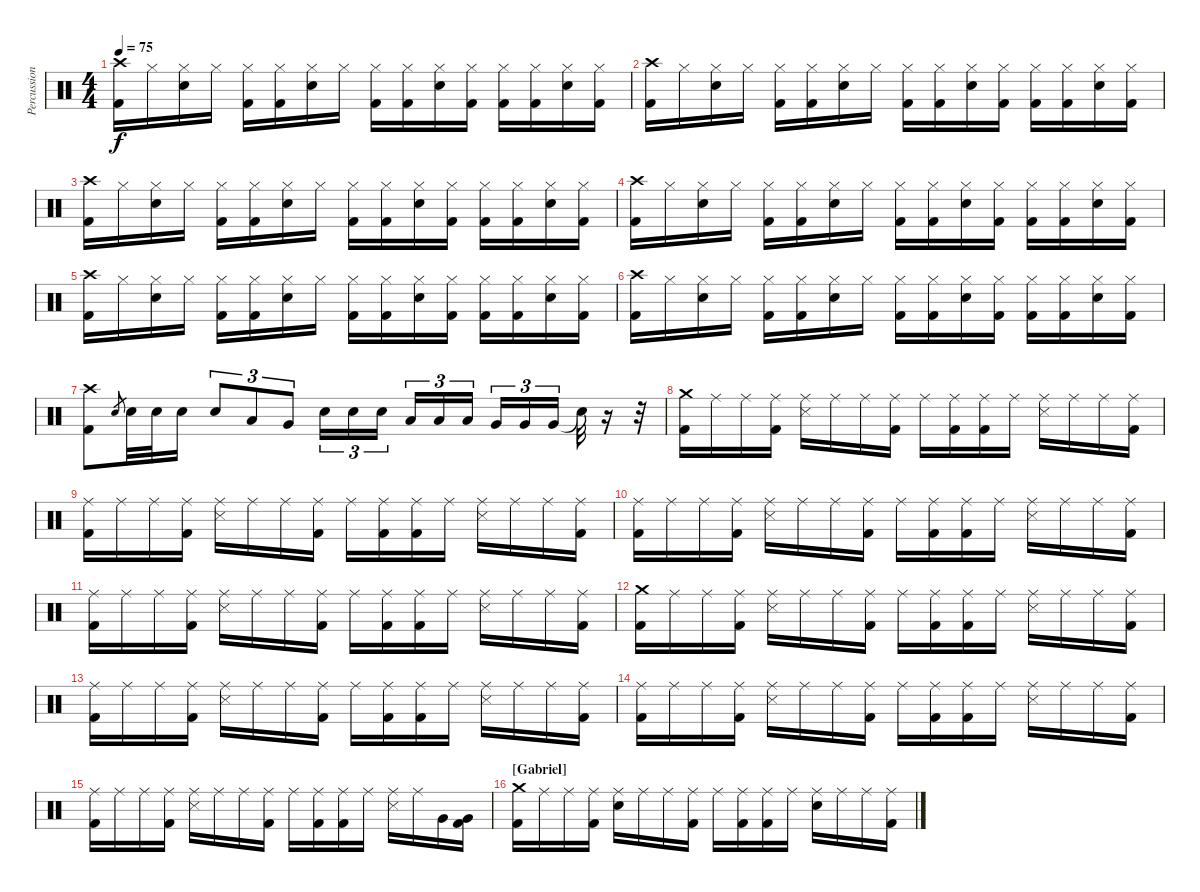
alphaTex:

\track ("Percussions" "Percussion") {instrument percussion}
\staff {score}
\articulation defaults
\ts (4 4)
\tempo 75
\clef neutral
\ks c
("Crash high (hit)" "Kick (hit) 2").16{dy f} "Hi-Hat (closed)".16 ("Hi-Hat (closed)" "Electric Snare (hit)").16 "Hi-Hat (closed)".16 ("Hi-Hat (closed)" "Kick (hit) 2").16 ("Hi-Hat (closed)" "Kick (hit) 2").16 ("Hi-Hat (closed)" "Electric Snare (hit)").16 "Hi-Hat (closed)".16 ("Hi-Hat (closed)" "Kick (hit) 2").16 ("Hi-Hat (closed)" "Kick (hit) 2").16 ("Hi-Hat (closed)" "Electric Snare (hit)").16 ("Hi-Hat (closed)" "Kick (hit) 2").16 ("Hi-Hat (closed)" "Kick (hit) 2").16 ("Hi-Hat (closed)" "Kick (hit) 2").16 ("Hi-Hat (closed)" "Electric Snare (hit)").16 ("Hi-Hat (closed)" "Kick (hit) 2").16 |
("Crash high (hit)" "Kick (hit) 2").16 "Hi-Hat (closed)".16 ("Hi-Hat (closed)" "Electric Snare (hit)").16 "Hi-Hat (closed)".16 ("Hi-Hat (closed)" "Kick (hit) 2").16 ("Hi-Hat (closed)" "Kick (hit) 2").16 ("Hi-Hat (closed)" "Electric Snare (hit)").16 "Hi-Hat (closed)".16 ("Hi-Hat (closed)" "Kick (hit) 2").16 ("Hi-Hat (closed)" "Kick (hit) 2").16 ("Hi-Hat (closed)" "Electric Snare (hit)").16 ("Hi-Hat (closed)" "Kick (hit) 2").16 ("Hi-Hat (closed)" "Kick (hit) 2").16 ("Hi-Hat (closed)" "Kick (hit) 2").16 ("Hi-Hat (closed)" "Electric Snare (hit)").16 ("Hi-Hat (closed)" "Kick (hit) 2").16 |
("Crash high (hit)" "Kick (hit) 2").16 "Hi-Hat (closed)".16 ("Hi-Hat (closed)" "Electric Snare (hit)").16 "Hi-Hat (closed)".16 ("Hi-Hat (closed)" "Kick (hit) 2").16 ("Hi-Hat (closed)" "Kick (hit) 2").16 ("Hi-Hat (closed)" "Electric Snare (hit)").16 "Hi-Hat (closed)".16 ("Hi-Hat (closed)" "Kick (hit) 2").16 ("Hi-Hat (closed)" "Kick (hit) 2").16 ("Hi-Hat (closed)" "Electric Snare (hit)").16 ("Hi-Hat (closed)" "Kick (hit) 2").16 ("Hi-Hat (closed)" "Kick (hit) 2").16 ("Hi-Hat (closed)" "Kick (hit) 2").16 ("Hi-Hat (closed)" "Electric Snare (hit)").16 ("Hi-Hat (closed)" "Kick (hit) 2").16 |
("Crash high (hit)" "Kick (hit) 2").16 "Hi-Hat (closed)".16 ("Hi-Hat (closed)" "Electric Snare (hit)").16 "Hi-Hat (closed)".16 ("Hi-Hat (closed)" "Kick (hit) 2").16 ("Hi-Hat (closed)" "Kick (hit) 2").16 ("Hi-Hat (closed)" "Electric Snare (hit)").16 "Hi-Hat (closed)".16 ("Hi-Hat (closed)" "Kick (hit) 2").16 ("Hi-Hat (closed)" "Kick (hit) 2").16 ("Hi-Hat (closed)" "Electric Snare (hit)").16 ("Hi-Hat (closed)" "Kick (hit) 2").16 ("Hi-Hat (closed)" "Kick (hit) 2").16 ("Hi-Hat (closed)" "Kick (hit) 2").16 ("Hi-Hat (closed)" "Electric Snare (hit)").16 ("Hi-Hat (closed)" "Kick (hit) 2").16 |
("Crash high (hit)" "Kick (hit) 2").16 "Hi-Hat (closed)".16 ("Hi-Hat (closed)" "Electric Snare (hit)").16 "Hi-Hat (closed)".16 ("Hi-Hat (closed)" "Kick (hit) 2").16 ("Hi-Hat (closed)" "Kick (hit) 2").16 ("Hi-Hat (closed)" "Electric Snare (hit)").16 "Hi-Hat (closed)".16 ("Hi-Hat (closed)" "Kick (hit) 2").16 ("Hi-Hat (closed)" "Kick (hit) 2").16 ("Hi-Hat (closed)" "Electric Snare (hit)").16 ("Hi-Hat (closed)" "Kick (hit) 2").16 ("Hi-Hat (closed)" "Kick (hit) 2").16 ("Hi-Hat (closed)" "Kick (hit) 2").16 ("Hi-Hat (closed)" "Electric Snare (hit)").16 ("Hi-Hat (closed)" "Kick (hit) 2").16 |
("Crash high (hit)" "Kick (hit) 2").16 "Hi-Hat (closed)".16 ("Hi-Hat (closed)" "Electric Snare (hit)").16 "Hi-Hat (closed)".16 ("Hi-Hat (closed)" "Kick (hit) 2").16 ("Hi-Hat (closed)" "Kick (hit) 2").16 ("Hi-Hat (closed)" "Electric Snare (hit)").16 "Hi-Hat (closed)".16 ("Hi-Hat (closed)" "Kick (hit) 2").16 ("Hi-Hat (closed)" "Kick (hit) 2").16 ("Hi-Hat (closed)" "Electric Snare (hit)").16 ("Hi-Hat (closed)" "Kick (hit) 2").16 ("Hi-Hat (closed)" "Kick (hit) 2").16 ("Hi-Hat (closed)" "Kick (hit) 2").16 ("Hi-Hat (closed)" "Electric Snare (hit)").16 ("Hi-Hat (closed)" "Kick (hit) 2").16 |
("Crash high (hit)" "Kick (hit) 2").8 "Electric Snare (hit)".8{gr} "Electric Snare (hit)".32 "Electric Snare (hit)".32 "Electric Snare (hit)".16 "Electric Snare (hit)".8{tu (3 2)} "Low Tom (hit)".8{tu (3 2)} "Very Low Tom (hit)".8{tu (3 2)} "Electric Snare (hit)".16{tu (3 2)} "Electric Snare (hit)".16{tu (3 2)} "Electric Snare (hit)".16{tu (3 2)} "Low Tom (hit)".16{tu (3 2)} "Low Tom (hit)".16{tu (3 2)} "Low Tom (hit)".16{tu (3 2)} "Very Low Tom (hit)".16{tu (3 2)} "Very Low Tom (hit)".16{tu (3 2)} "Very Low Tom (hit)".16{tu (3 2)} "Snare (hit)"{t}.32 r.16 r.32 |
("Crash medium (hit)" "Kick (hit) 2").16 "Ride (middle)".16 "Ride (middle)".16 ("Ride (middle)" "Kick (hit) 2").16 ("Ride (middle)" "Snare (side stick) 3").16 "Ride (middle)".16 "Ride (middle)".16 ("Ride (middle)" "Kick (hit) 2").16 "Ride (middle)".16 ("Ride (middle)" "Kick (hit) 2").16 ("Ride (middle)" "Kick (hit) 2").16 "Ride (middle)".16 ("Ride (middle)" "Snare (side stick) 3").16 "Ride (middle)".16 "Ride (middle)".16 ("Ride (middle)" "Kick (hit) 2").16 |
("Ride (middle)" "Kick (hit) 2").16 "Ride (middle)".16 "Ride (middle)".16 ("Ride (middle)" "Kick (hit) 2").16 ("Ride (middle)" "Snare (side stick) 3").16 "Ride (middle)".16 "Ride (middle)".16 ("Ride (middle)" "Kick (hit) 2").16 "Ride (middle)".16 ("Ride (middle)" "Kick (hit) 2").16 ("Ride (middle)" "Kick (hit) 2").16 "Ride (middle)".16 ("Ride (middle)" "Snare (side stick) 3").16 "Ride (middle)".16 "Ride (middle)".16 ("Ride (middle)" "Kick (hit) 2").16 |
("Ride (middle)" "Kick (hit) 2").16 "Ride (middle)".16 "Ride (middle)".16 ("Ride (middle)" "Kick (hit) 2").16 ("Ride (middle)" "Snare (side stick) 3").16 "Ride (middle)".16 "Ride (middle)".16 ("Ride (middle)" "Kick (hit) 2").16 "Ride (middle)".16 ("Ride (middle)" "Kick (hit) 2").16 ("Ride (middle)" "Kick (hit) 2").16 "Ride (middle)".16 ("Ride (middle)" "Snare (side stick) 3").16 "Ride (middle)".16 "Ride (middle)".16 ("Ride (middle)" "Kick (hit) 2").16 |
("Ride (middle)" "Kick (hit) 2").16 "Ride (middle)".16 "Ride (middle)".16 ("Ride (middle)" "Kick (hit) 2").16 ("Ride (middle)" "Snare (side stick) 3").16 "Ride (middle)".16 "Ride (middle)".16 ("Ride (middle)" "Kick (hit) 2").16 "Ride (middle)".16 ("Ride (middle)" "Kick (hit) 2").16 ("Ride (middle)" "Kick (hit) 2").16 "Ride (middle)".16 ("Ride (middle)" "Snare (side stick) 3").16 "Ride (middle)".16 "Ride (middle)".16 ("Ride (middle)" "Kick (hit) 2").16 |
("Crash medium (hit)" "Kick (hit) 2").16 "Ride (middle)".16 "Ride (middle)".16 ("Ride (middle)" "Kick (hit) 2").16 ("Ride (middle)" "Snare (side stick) 3").16 "Ride (middle)".16 "Ride (middle)".16 ("Ride (middle)" "Kick (hit) 2").16 "Ride (middle)".16 ("Ride (middle)" "Kick (hit) 2").16 ("Ride (middle)" "Kick (hit) 2").16 "Ride (middle)".16 ("Ride (middle)" "Snare (side stick) 3").16 "Ride (middle)".16 "Ride (middle)".16 ("Ride (middle)" "Kick (hit) 2").16 |
("Ride (middle)" "Kick (hit) 2").16 "Ride (middle)".16 "Ride (middle)".16 ("Ride (middle)" "Kick (hit) 2").16 ("Ride (middle)" "Snare (side stick) 3").16 "Ride (middle)".16 "Ride (middle)".16 ("Ride (middle)" "Kick (hit) 2").16 "Ride (middle)".16 ("Ride (middle)" "Kick (hit) 2").16 ("Ride (middle)" "Kick (hit) 2").16 "Ride (middle)".16 ("Ride (middle)" "Snare (side stick) 3").16 "Ride (middle)".16 "Ride (middle)".16 ("Ride (middle)" "Kick (hit) 2").16 |
("Ride (middle)" "Kick (hit) 2").16 "Ride (middle)".16 "Ride (middle)".16 ("Ride (middle)" "Kick (hit) 2").16 ("Ride (middle)" "Snare (side stick) 3").16 "Ride (middle)".16 "Ride (middle)".16 ("Ride (middle)" "Kick (hit) 2").16 "Ride (middle)".16 ("Ride (middle)" "Kick (hit) 2").16 ("Ride (middle)" "Kick (hit) 2").16 "Ride (middle)".16 ("Ride (middle)" "Snare (side stick) 3").16 "Ride (middle)".16 "Ride (middle)".16 ("Ride (middle)" "Kick (hit) 2").16 |
("Ride (middle)" "Kick (hit) 2").16 "Ride (middle)".16 "Ride (middle)".16 ("Ride (middle)" "Kick (hit) 2").16 ("Ride (middle)" "Snare (side stick) 3").16 "Ride (middle)".16 "Ride (middle)".16 ("Ride (middle)" "Kick (hit) 2").16 "Ride (middle)".16 ("Ride (middle)" "Kick (hit) 2").16 ("Ride (middle)" "Kick (hit) 2").16 "Ride (middle)".16 ("Ride (middle)" "Snare (side stick) 3").16 "Ride (middle)".16 "Very Low Tom (hit)".16 ("Very Low Tom (hit)" "Kick (hit) 2").16 |
\section ("" "[Gabriel]")
("Crash medium (hit)" "Kick (hit) 2").16 "Ride (middle)".16 "Ride (middle)".16 ("Ride (middle)" "Kick (hit) 2").16 ("Ride (middle)" "Snare (hit) 2").16 "Ride (middle)".16 "Ride (middle)".16 ("Ride (middle)" "Kick (hit) 2").16 "Ride (middle)".16 ("Ride (middle)" "Kick (hit) 2").16 ("Ride (middle)" "Kick (hit) 2").16 "Ride (middle)".16 ("Ride (middle)" "Snare (hit) 2").16 "Ride (middle)".16 "Ride (middle)".16 ("Ride (middle)" "Kick (hit) 2").16
